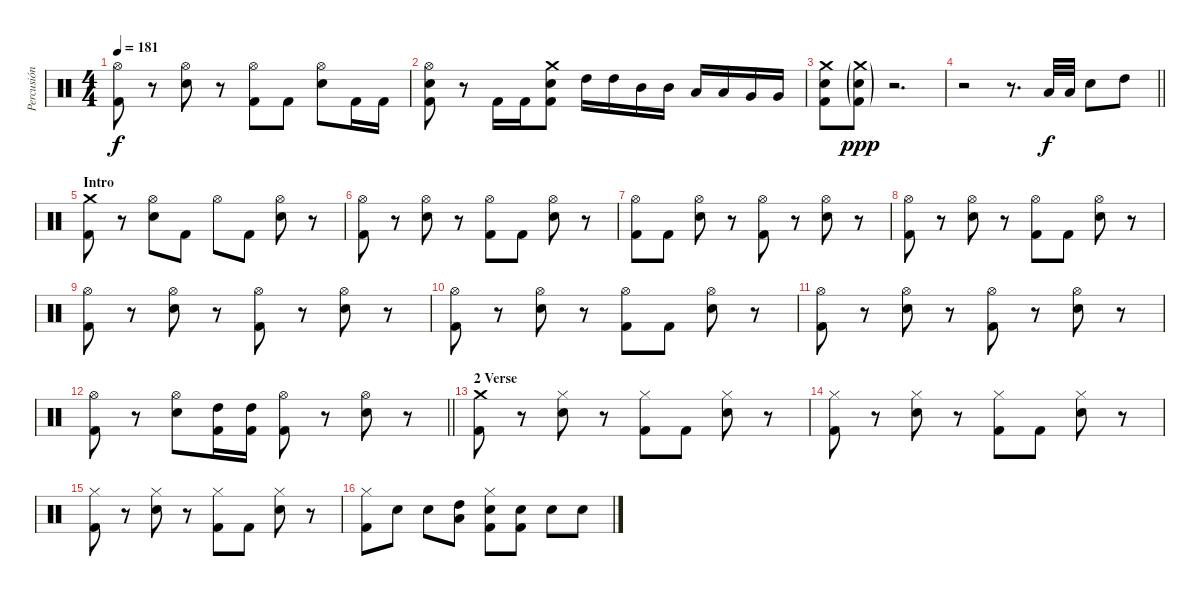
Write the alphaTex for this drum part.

\track ("Percusión" "Percusión") {instrument percussion}
\staff {score}
\articulation defaults
\ts (4 4)
\tempo 181
\clef neutral
\ks c
("Hi-Hat (open)" "Kick (hit) 2").8{dy f} r.8 ("Hi-Hat (open)" "Electric Snare (hit)").8 r.8 ("Hi-Hat (open)" "Kick (hit) 2").8 "Kick (hit) 2".8 ("Hi-Hat (open)" "Electric Snare (hit)").8 "Kick (hit) 2".16 "Kick (hit) 2".16 |
("Hi-Hat (open)" "Electric Snare (hit)" "Kick (hit) 2").8 r.8 "Kick (hit) 2".16 "Kick (hit) 2".16 ("Crash medium (hit)" "Electric Snare (hit)" "Kick (hit) 2").8 "High Tom (hit)".16 "High Tom (hit)".16 "Mid Tom (hit)".16 "Mid Tom (hit)".16 "Low Tom (hit)".16 "Low Tom (hit)".16 "Very Low Tom (hit)".16 "Very Low Tom (hit)".16 |
("Crash medium (hit)" "Electric Snare (hit)" "Kick (hit) 2").8 ("Crash medium (hit)"{g} "Electric Snare (hit)"{g} "Kick (hit) 2"{g}).8{dy ppp} r.2{d} |
\barLineRight lightlight
r.2 r.8{d} "Low Tom (hit)".32{dy f} "Low Tom (hit)".32 "Electric Snare (hit)".8 "High Tom (hit)".8 |
\section ("" "Intro")
("Crash medium (hit)" "Kick (hit) 2").8 r.8 ("Hi-Hat (open)" "Electric Snare (hit)").8 "Kick (hit) 2".8 "Hi-Hat (open)".8 "Kick (hit) 2".8 ("Hi-Hat (open)" "Electric Snare (hit)").8 r.8 |
("Hi-Hat (open)" "Kick (hit) 2").8 r.8 ("Hi-Hat (open)" "Electric Snare (hit)").8 r.8 ("Hi-Hat (open)" "Kick (hit) 2").8 "Kick (hit) 2".8 ("Hi-Hat (open)" "Electric Snare (hit)").8 r.8 |
("Hi-Hat (open)" "Kick (hit) 2").8 "Kick (hit) 2".8 ("Hi-Hat (open)" "Electric Snare (hit)").8 r.8 ("Hi-Hat (open)" "Kick (hit) 2").8 r.8 ("Hi-Hat (open)" "Electric Snare (hit)").8 r.8 |
("Hi-Hat (open)" "Kick (hit) 2").8 r.8 ("Hi-Hat (open)" "Electric Snare (hit)").8 r.8 ("Hi-Hat (open)" "Kick (hit) 2").8 "Kick (hit) 2".8 ("Hi-Hat (open)" "Electric Snare (hit)").8 r.8 |
("Hi-Hat (open)" "Kick (hit) 2").8 r.8 ("Hi-Hat (open)" "Electric Snare (hit)").8 r.8 ("Hi-Hat (open)" "Kick (hit) 2").8 r.8 ("Hi-Hat (open)" "Electric Snare (hit)").8 r.8 |
("Hi-Hat (open)" "Kick (hit) 2").8 r.8 ("Hi-Hat (open)" "Electric Snare (hit)").8 r.8 ("Hi-Hat (open)" "Kick (hit) 2").8 "Kick (hit) 2".8 ("Hi-Hat (open)" "Electric Snare (hit)").8 r.8 |
("Hi-Hat (open)" "Kick (hit) 2").8 r.8 ("Hi-Hat (open)" "Electric Snare (hit)").8 r.8 ("Hi-Hat (open)" "Kick (hit) 2").8 r.8 ("Hi-Hat (open)" "Electric Snare (hit)").8 r.8 |
\barLineRight lightlight
("Hi-Hat (open)" "Kick (hit) 2").8 r.8 ("Hi-Hat (open)" "Electric Snare (hit)").8 ("High Tom (hit)" "Kick (hit) 2").16 ("High Tom (hit)" "Kick (hit) 2").16 ("Hi-Hat (open)" "Kick (hit) 2").8 r.8 ("Hi-Hat (open)" "Electric Snare (hit)").8 r.8 |
\section ("" "2 Verse")
("Crash medium (hit)" "Kick (hit) 2").8 r.8 ("Hi-Hat (closed)" "Electric Snare (hit)").8 r.8 ("Hi-Hat (closed)" "Kick (hit) 2").8 "Kick (hit) 2".8 ("Hi-Hat (closed)" "Electric Snare (hit)").8 r.8 |
("Hi-Hat (closed)" "Kick (hit) 2").8 r.8 ("Hi-Hat (closed)" "Electric Snare (hit)").8 r.8 ("Hi-Hat (closed)" "Kick (hit) 2").8 "Kick (hit) 2".8 ("Hi-Hat (closed)" "Electric Snare (hit)").8 r.8 |
("Hi-Hat (closed)" "Kick (hit) 2").8 r.8 ("Hi-Hat (closed)" "Electric Snare (hit)").8 r.8 ("Hi-Hat (closed)" "Kick (hit) 2").8 "Kick (hit) 2".8 ("Hi-Hat (closed)" "Electric Snare (hit)").8 r.8 |
("Hi-Hat (closed)" "Kick (hit) 2").8 "Electric Snare (hit)".8 "Electric Snare (hit)".8 ("High Tom (hit)" "Low Tom (hit)").8 ("Hi-Hat (closed)" "Electric Snare (hit)" "Kick (hit) 2").8 ("Electric Snare (hit)" "Kick (hit) 2").8 "Electric Snare (hit)".8 "Electric Snare (hit)".8
